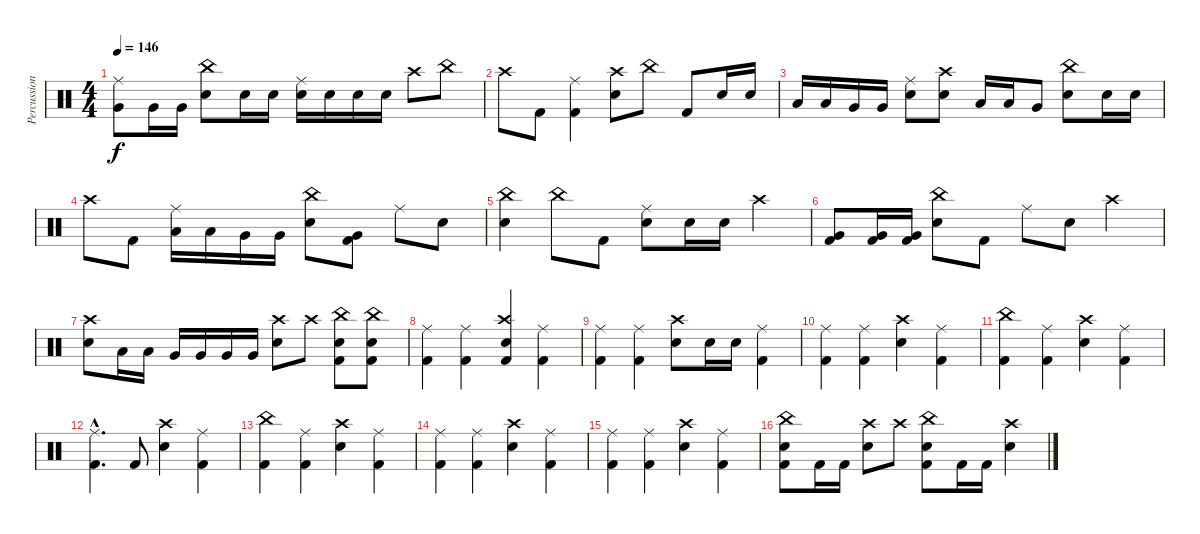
\track ("Percussion" "Percussion") {instrument percussion}
\staff {score}
\articulation defaults
\ts (4 4)
\tempo 146
\clef neutral
\ks c
("Ride (middle)" "Very Low Tom (hit)").8{dy f} "Very Low Tom (hit)".16 "Very Low Tom (hit)".16 ("China (hit)" "Snare (hit) 2").8 "Snare (hit) 2".16 "Snare (hit) 2".16 ("Ride (middle)" "Snare (hit) 2").16 "Snare (hit) 2".16 "Snare (hit) 2".16 "Snare (hit) 2".16 "Crash high (hit)".8 "China (hit)".8 |
"Crash high (hit)".8 "Kick (hit) 2".8 ("Ride (middle)" "Kick (hit) 2").4 ("Crash high (hit)" "Snare (hit) 2").8 "China (hit)".8 "Kick (hit) 2".8 "Snare (hit) 2".16 "Snare (hit) 2".16 |
"Low Tom (hit)".16 "Low Tom (hit)".16 "Very Low Tom (hit)".16 "Very Low Tom (hit)".16 ("Ride (middle)" "Snare (hit) 2").8 ("Crash high (hit)" "Snare (hit) 2").8 "Low Tom (hit)".16 "Low Tom (hit)".16 "Very Low Tom (hit)".8 ("China (hit)" "Snare (hit) 2").8 "Snare (hit) 2".16 "Snare (hit) 2".16 |
"Crash high (hit)".8 "Kick (hit) 2".8 ("Ride (middle)" "Low Tom (hit)").16 "Low Tom (hit)".16 "Very Low Tom (hit)".16 "Very Low Tom (hit)".16 ("China (hit)" "Snare (hit) 2").8 ("Very Low Tom (hit)" "Kick (hit) 2").8 "Ride (middle)".8 "Snare (hit) 2".8 |
("China (hit)" "Snare (hit) 2").4 "China (hit)".8 "Kick (hit) 2".8 ("Ride (middle)" "Snare (hit) 2").8 "Snare (hit) 2".16 "Snare (hit) 2".16 "Crash high (hit)".4 |
("Very Low Tom (hit)" "Kick (hit) 2").8 ("Very Low Tom (hit)" "Kick (hit) 2").16 ("Very Low Tom (hit)" "Kick (hit) 2").16 ("China (hit)" "Snare (hit) 2").8 "Kick (hit) 2".8 "Ride (middle)".8 "Snare (hit) 2".8 "Crash high (hit)".4 |
("Crash high (hit)" "Snare (hit) 2").8 "Low Tom (hit)".16 "Low Tom (hit)".16 "Very Low Tom (hit)".16 "Very Low Tom (hit)".16 "Very Low Tom (hit)".16 "Very Low Tom (hit)".16 ("Crash high (hit)" "Snare (hit) 2").8 "Crash high (hit)".8 ("China (hit)" "Snare (hit) 2" "Kick (hit) 2").8 ("China (hit)" "Snare (hit) 2" "Kick (hit) 2").8 |
("Ride (middle)" "Kick (hit) 2").4 ("Ride (middle)" "Kick (hit) 2").4 ("Crash high (hit)" "Snare (hit) 2" "Kick (hit) 2").4 ("Ride (middle)" "Kick (hit) 2").4 |
("Ride (middle)" "Kick (hit) 2").4 ("Ride (middle)" "Kick (hit) 2").4 ("Crash high (hit)" "Snare (hit) 2").8 "Snare (hit) 2".16 "Snare (hit) 2".16 ("Ride (middle)" "Kick (hit) 2").4 |
("Ride (middle)" "Kick (hit) 2").4 ("Ride (middle)" "Kick (hit) 2").4 ("Crash high (hit)" "Snare (hit) 2").4 ("Ride (middle)" "Kick (hit) 2").4 |
("China (hit)" "Kick (hit) 2").4 ("Ride (middle)" "Kick (hit) 2").4 ("Crash high (hit)" "Snare (hit) 2").4 ("Ride (middle)" "Kick (hit) 2").4 |
("Ride (middle)"{hac} "Kick (hit) 2"{hac}).4{d} "Kick (hit) 2".8 ("Crash high (hit)" "Snare (hit) 2").4 ("Ride (middle)" "Kick (hit) 2").4 |
("China (hit)" "Kick (hit) 2").4 ("Ride (middle)" "Kick (hit) 2").4 ("Crash high (hit)" "Snare (hit) 2").4 ("Ride (middle)" "Kick (hit) 2").4 |
("Ride (middle)" "Kick (hit) 2").4 ("Ride (middle)" "Kick (hit) 2").4 ("Crash high (hit)" "Snare (hit) 2").4 ("Ride (middle)" "Kick (hit) 2").4 |
("Ride (middle)" "Kick (hit) 2").4 ("Ride (middle)" "Kick (hit) 2").4 ("Crash high (hit)" "Snare (hit) 2").4 ("Ride (middle)" "Kick (hit) 2").4 |
("China (hit)" "Snare (hit) 2" "Kick (hit) 2").8 "Kick (hit) 2".16 "Kick (hit) 2".16 ("Crash high (hit)" "Snare (hit) 2").8 "Crash high (hit)".8 ("China (hit)" "Snare (hit) 2" "Kick (hit) 2").8 "Kick (hit) 2".16 "Kick (hit) 2".16 ("Crash high (hit)" "Snare (hit) 2").4
